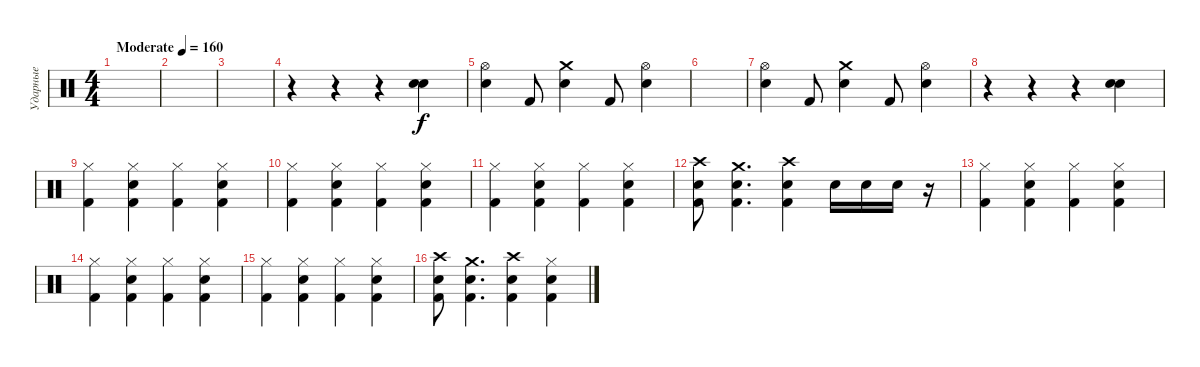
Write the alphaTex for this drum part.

\track ("Ударные" "Ударные") {instrument percussion}
\staff {score}
\articulation defaults
\ts (4 4)
\tempo (160 "Moderate")
\clef neutral
\ks c
|
|
|
r.4 r.4 r.4 ("Snare (hit) 2" "Snare (hit) 2").4{bd 240} |
("Hi-Hat (open)" "Snare (hit) 2").4 "Kick (hit) 2".8 ("Crash medium (hit)" "Snare (hit) 2").4 "Kick (hit) 2".8 ("Hi-Hat (open)" "Snare (hit) 2").4 |
|
("Hi-Hat (open)" "Snare (hit) 2").4 "Kick (hit) 2".8 ("Crash medium (hit)" "Snare (hit) 2").4 "Kick (hit) 2".8 ("Hi-Hat (open)" "Snare (hit) 2").4 |
r.4 r.4 r.4 ("Snare (hit) 2" "Snare (hit) 2").4{bd 240} |
("Hi-Hat (closed)" "Kick (hit) 2").4 ("Hi-Hat (closed)" "Snare (hit) 2" "Kick (hit) 2").4 ("Hi-Hat (closed)" "Kick (hit) 2").4 ("Hi-Hat (closed)" "Snare (hit) 2" "Kick (hit) 2").4 |
("Hi-Hat (closed)" "Kick (hit) 2").4 ("Hi-Hat (closed)" "Snare (hit) 2" "Kick (hit) 2").4 ("Hi-Hat (closed)" "Kick (hit) 2").4 ("Hi-Hat (closed)" "Snare (hit) 2" "Kick (hit) 2").4 |
("Hi-Hat (closed)" "Kick (hit) 2").4 ("Hi-Hat (closed)" "Snare (hit) 2" "Kick (hit) 2").4 ("Hi-Hat (closed)" "Kick (hit) 2").4 ("Hi-Hat (closed)" "Snare (hit) 2" "Kick (hit) 2").4 |
("Crash high (hit)" "Snare (hit) 2" "Kick (hit) 2").8 ("Crash medium (hit)" "Snare (hit) 2" "Kick (hit) 2").4{d} ("Crash high (hit)" "Snare (hit) 2" "Kick (hit) 2").4 "Electric Snare (hit)".16 "Electric Snare (hit)".16 "Electric Snare (hit)".16 r.16 |
("Hi-Hat (closed)" "Kick (hit) 2").4 ("Hi-Hat (closed)" "Snare (hit) 2" "Kick (hit) 2").4 ("Hi-Hat (closed)" "Kick (hit) 2").4 ("Hi-Hat (closed)" "Snare (hit) 2" "Kick (hit) 2").4 |
("Hi-Hat (closed)" "Kick (hit) 2").4 ("Hi-Hat (closed)" "Snare (hit) 2" "Kick (hit) 2").4 ("Hi-Hat (closed)" "Kick (hit) 2").4 ("Hi-Hat (closed)" "Snare (hit) 2" "Kick (hit) 2").4 |
("Hi-Hat (closed)" "Kick (hit) 2").4 ("Hi-Hat (closed)" "Snare (hit) 2" "Kick (hit) 2").4 ("Hi-Hat (closed)" "Kick (hit) 2").4 ("Hi-Hat (closed)" "Snare (hit) 2" "Kick (hit) 2").4 |
("Crash high (hit)" "Snare (hit) 2" "Kick (hit) 2").8 ("Crash medium (hit)" "Snare (hit) 2" "Kick (hit) 2").4{d} ("Crash high (hit)" "Snare (hit) 2" "Kick (hit) 2").4 ("Hi-Hat (closed)" "Snare (hit) 2" "Kick (hit) 2").4
